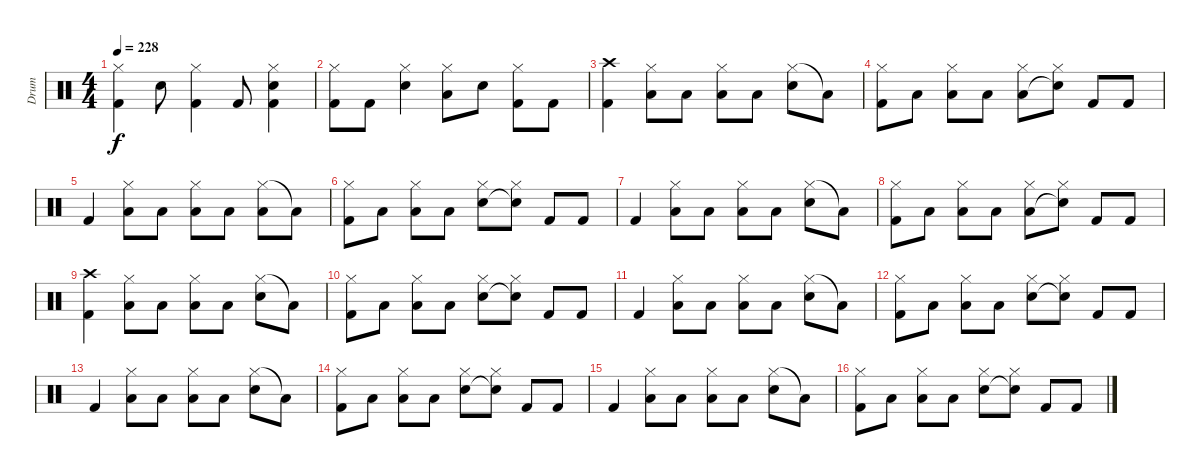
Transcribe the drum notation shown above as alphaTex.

\track ("Drum" "Drum") {instrument percussion}
\staff {score}
\articulation defaults
\ts (4 4)
\tempo 228
\clef neutral
\ks c
("Hi-Hat (closed)" "Kick (hit) 2").4{dy f} "Snare (hit) 2".8 ("Hi-Hat (closed)" "Kick (hit) 2").4 "Kick (hit) 2".8 ("Hi-Hat (closed)" "Snare (hit) 2" "Kick (hit) 2").4 |
("Hi-Hat (closed)" "Kick (hit) 2").8 "Kick (hit) 2".8 ("Hi-Hat (closed)" "Snare (hit) 2").4 ("Hi-Hat (closed)" "Low Floor Tom (hit)").8 "Snare (hit) 2".8 ("Hi-Hat (closed)" "Kick (hit) 2").8 "Kick (hit) 2".8 |
("Crash high (hit)" "Kick (hit) 2").4 ("Hi-Hat (closed)" "Low Floor Tom (hit)").8 "Low Floor Tom (hit)".8 ("Hi-Hat (closed)" "Low Floor Tom (hit)").8 "Low Floor Tom (hit)".8 ("Hi-Hat (closed)" "Snare (hit) 2").8 "Low Floor Tom (hit)"{t}.8 |
("Hi-Hat (closed)" "Kick (hit) 2").8 "Low Floor Tom (hit)".8 ("Hi-Hat (closed)" "Low Floor Tom (hit)").8 "Low Floor Tom (hit)".8 ("Hi-Hat (closed)" "Low Floor Tom (hit)").8 ("Hi-Hat (closed)" "Snare (hit) 2"{t}).8 "Kick (hit) 2".8 "Kick (hit) 2".8 |
"Kick (hit) 2".4 ("Hi-Hat (closed)" "Low Floor Tom (hit)").8 "Low Floor Tom (hit)".8 ("Hi-Hat (closed)" "Low Floor Tom (hit)").8 "Low Floor Tom (hit)".8 ("Hi-Hat (closed)" "Low Floor Tom (hit)").8 "Low Floor Tom (hit)"{t}.8 |
("Hi-Hat (closed)" "Kick (hit) 2").8 "Low Floor Tom (hit)".8 ("Hi-Hat (closed)" "Low Floor Tom (hit)").8 "Low Floor Tom (hit)".8 ("Hi-Hat (closed)" "Snare (hit) 2").8 ("Hi-Hat (closed)" "Snare (hit) 2"{t}).8 "Kick (hit) 2".8 "Kick (hit) 2".8 |
"Kick (hit) 2".4 ("Hi-Hat (closed)" "Low Floor Tom (hit)").8 "Low Floor Tom (hit)".8 ("Hi-Hat (closed)" "Low Floor Tom (hit)").8 "Low Floor Tom (hit)".8 ("Hi-Hat (closed)" "Snare (hit) 2").8 "Low Floor Tom (hit)"{t}.8 |
("Hi-Hat (closed)" "Kick (hit) 2").8 "Low Floor Tom (hit)".8 ("Hi-Hat (closed)" "Low Floor Tom (hit)").8 "Low Floor Tom (hit)".8 ("Hi-Hat (closed)" "Low Floor Tom (hit)").8 ("Hi-Hat (closed)" "Snare (hit) 2"{t}).8 "Kick (hit) 2".8 "Kick (hit) 2".8 |
("Crash high (hit)" "Kick (hit) 2").4 ("Hi-Hat (closed)" "Low Floor Tom (hit)").8 "Low Floor Tom (hit)".8 ("Hi-Hat (closed)" "Low Floor Tom (hit)").8 "Low Floor Tom (hit)".8 ("Hi-Hat (closed)" "Snare (hit) 2").8 "Low Floor Tom (hit)"{t}.8 |
("Hi-Hat (closed)" "Kick (hit) 2").8 "Low Floor Tom (hit)".8 ("Hi-Hat (closed)" "Low Floor Tom (hit)").8 "Low Floor Tom (hit)".8 ("Hi-Hat (closed)" "Snare (hit) 2").8 ("Hi-Hat (closed)" "Snare (hit) 2"{t}).8 "Kick (hit) 2".8 "Kick (hit) 2".8 |
"Kick (hit) 2".4 ("Hi-Hat (closed)" "Low Floor Tom (hit)").8 "Low Floor Tom (hit)".8 ("Hi-Hat (closed)" "Low Floor Tom (hit)").8 "Low Floor Tom (hit)".8 ("Hi-Hat (closed)" "Snare (hit) 2").8 "Low Floor Tom (hit)"{t}.8 |
("Hi-Hat (closed)" "Kick (hit) 2").8 "Low Floor Tom (hit)".8 ("Hi-Hat (closed)" "Low Floor Tom (hit)").8 "Low Floor Tom (hit)".8 ("Hi-Hat (closed)" "Snare (hit) 2").8 ("Hi-Hat (closed)" "Snare (hit) 2"{t}).8 "Kick (hit) 2".8 "Kick (hit) 2".8 |
"Kick (hit) 2".4 ("Hi-Hat (closed)" "Low Floor Tom (hit)").8 "Low Floor Tom (hit)".8 ("Hi-Hat (closed)" "Low Floor Tom (hit)").8 "Low Floor Tom (hit)".8 ("Hi-Hat (closed)" "Snare (hit) 2").8 "Low Floor Tom (hit)"{t}.8 |
("Hi-Hat (closed)" "Kick (hit) 2").8 "Low Floor Tom (hit)".8 ("Hi-Hat (closed)" "Low Floor Tom (hit)").8 "Low Floor Tom (hit)".8 ("Hi-Hat (closed)" "Snare (hit) 2").8 ("Hi-Hat (closed)" "Snare (hit) 2"{t}).8 "Kick (hit) 2".8 "Kick (hit) 2".8 |
"Kick (hit) 2".4 ("Hi-Hat (closed)" "Low Floor Tom (hit)").8 "Low Floor Tom (hit)".8 ("Hi-Hat (closed)" "Low Floor Tom (hit)").8 "Low Floor Tom (hit)".8 ("Hi-Hat (closed)" "Snare (hit) 2").8 "Low Floor Tom (hit)"{t}.8 |
("Hi-Hat (closed)" "Kick (hit) 2").8 "Low Floor Tom (hit)".8 ("Hi-Hat (closed)" "Low Floor Tom (hit)").8 "Low Floor Tom (hit)".8 ("Hi-Hat (closed)" "Snare (hit) 2").8 ("Hi-Hat (closed)" "Snare (hit) 2"{t}).8 "Kick (hit) 2".8 "Kick (hit) 2".8
